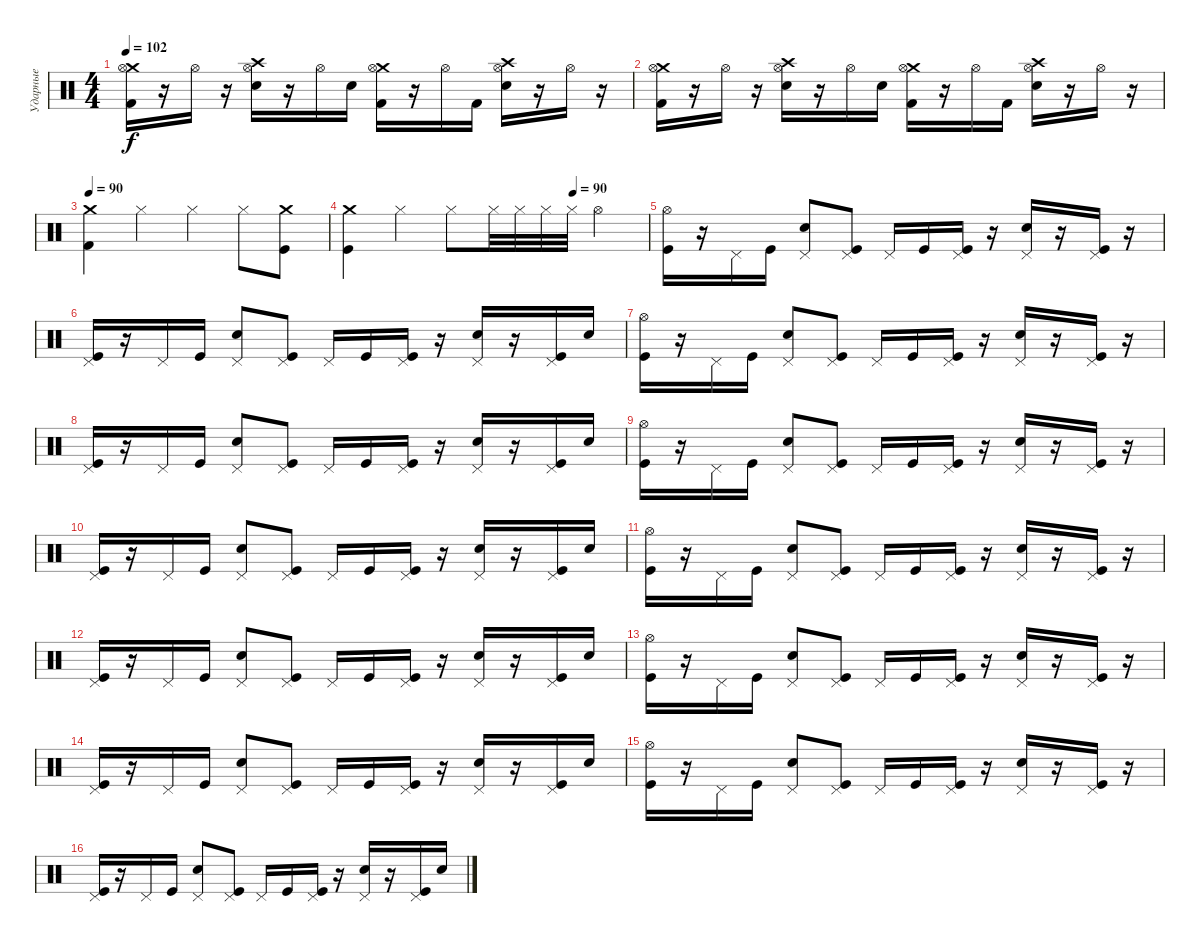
\track ("Ударные" "Ударные") {instrument percussion}
\staff {score}
\articulation defaults
\ts (4 4)
\tempo 102
\clef neutral
\ks c
("Crash medium (hit)" "Hi-Hat (open)" "Kick (hit) 2").16{dy f} r.16 "Hi-Hat (open)".16 r.16 ("Crash high (hit)" "Hi-Hat (open)" "Electric Snare (hit)").16 r.16 "Hi-Hat (open)".16 "Electric Snare (hit)".16 ("Crash medium (hit)" "Hi-Hat (open)" "Kick (hit) 2").16 r.16 "Hi-Hat (open)".16 "Kick (hit) 2".16 ("Crash high (hit)" "Hi-Hat (open)" "Electric Snare (hit)").16 r.16 "Hi-Hat (open)".16 r.16 |
("Crash medium (hit)" "Hi-Hat (open)" "Kick (hit) 2").16 r.16 "Hi-Hat (open)".16 r.16 ("Crash high (hit)" "Hi-Hat (open)" "Electric Snare (hit)").16 r.16 "Hi-Hat (open)".16 "Electric Snare (hit)".16 ("Crash medium (hit)" "Hi-Hat (open)" "Kick (hit) 2").16 r.16 "Hi-Hat (open)".16 "Kick (hit) 2".16 ("Crash high (hit)" "Hi-Hat (open)" "Electric Snare (hit)").16 r.16 "Hi-Hat (open)".16 r.16 |
\tempo 90
("Crash medium (hit)" "Kick (hit) 2").4 "Hi-Hat (closed)".4 "Hi-Hat (closed)".4 "Hi-Hat (closed)".8 ("Crash medium (hit)" "Kick (hit)").8 |
\tempo (90 0.75)
("Crash medium (hit)" "Kick (hit)").4 "Hi-Hat (closed)".4 "Hi-Hat (closed)".8 "Hi-Hat (closed)".32 "Hi-Hat (closed)".32 "Hi-Hat (closed)".32 "Hi-Hat (closed)".32 "Hi-Hat (open)".4 |
("Hi-Hat (open)" "Kick (hit)").16 r.16 "Pedal Hi-Hat (hit)".16 "Kick (hit)".16 ("Pedal Hi-Hat (hit)" "Electric Snare (hit)").8 ("Pedal Hi-Hat (hit)" "Kick (hit)").8 "Pedal Hi-Hat (hit)".16 "Kick (hit)".16 ("Pedal Hi-Hat (hit)" "Kick (hit)").16 r.16 ("Pedal Hi-Hat (hit)" "Electric Snare (hit)").16 r.16 ("Pedal Hi-Hat (hit)" "Kick (hit)").16 r.16 |
("Pedal Hi-Hat (hit)" "Kick (hit)").16 r.16 "Pedal Hi-Hat (hit)".16 "Kick (hit)".16 ("Pedal Hi-Hat (hit)" "Electric Snare (hit)").8 ("Pedal Hi-Hat (hit)" "Kick (hit)").8 "Pedal Hi-Hat (hit)".16 "Kick (hit)".16 ("Pedal Hi-Hat (hit)" "Kick (hit)").16 r.16 ("Pedal Hi-Hat (hit)" "Electric Snare (hit)").16 r.16 ("Pedal Hi-Hat (hit)" "Kick (hit)").16 "Electric Snare (hit)".16 |
("Hi-Hat (open)" "Kick (hit)").16 r.16 "Pedal Hi-Hat (hit)".16 "Kick (hit)".16 ("Pedal Hi-Hat (hit)" "Electric Snare (hit)").8 ("Pedal Hi-Hat (hit)" "Kick (hit)").8 "Pedal Hi-Hat (hit)".16 "Kick (hit)".16 ("Pedal Hi-Hat (hit)" "Kick (hit)").16 r.16 ("Pedal Hi-Hat (hit)" "Electric Snare (hit)").16 r.16 ("Pedal Hi-Hat (hit)" "Kick (hit)").16 r.16 |
("Pedal Hi-Hat (hit)" "Kick (hit)").16 r.16 "Pedal Hi-Hat (hit)".16 "Kick (hit)".16 ("Pedal Hi-Hat (hit)" "Electric Snare (hit)").8 ("Pedal Hi-Hat (hit)" "Kick (hit)").8 "Pedal Hi-Hat (hit)".16 "Kick (hit)".16 ("Pedal Hi-Hat (hit)" "Kick (hit)").16 r.16 ("Pedal Hi-Hat (hit)" "Electric Snare (hit)").16 r.16 ("Pedal Hi-Hat (hit)" "Kick (hit)").16 "Electric Snare (hit)".16 |
("Hi-Hat (open)" "Kick (hit)").16 r.16 "Pedal Hi-Hat (hit)".16 "Kick (hit)".16 ("Pedal Hi-Hat (hit)" "Electric Snare (hit)").8 ("Pedal Hi-Hat (hit)" "Kick (hit)").8 "Pedal Hi-Hat (hit)".16 "Kick (hit)".16 ("Pedal Hi-Hat (hit)" "Kick (hit)").16 r.16 ("Pedal Hi-Hat (hit)" "Electric Snare (hit)").16 r.16 ("Pedal Hi-Hat (hit)" "Kick (hit)").16 r.16 |
("Pedal Hi-Hat (hit)" "Kick (hit)").16 r.16 "Pedal Hi-Hat (hit)".16 "Kick (hit)".16 ("Pedal Hi-Hat (hit)" "Electric Snare (hit)").8 ("Pedal Hi-Hat (hit)" "Kick (hit)").8 "Pedal Hi-Hat (hit)".16 "Kick (hit)".16 ("Pedal Hi-Hat (hit)" "Kick (hit)").16 r.16 ("Pedal Hi-Hat (hit)" "Electric Snare (hit)").16 r.16 ("Pedal Hi-Hat (hit)" "Kick (hit)").16 "Electric Snare (hit)".16 |
("Hi-Hat (open)" "Kick (hit)").16 r.16 "Pedal Hi-Hat (hit)".16 "Kick (hit)".16 ("Pedal Hi-Hat (hit)" "Electric Snare (hit)").8 ("Pedal Hi-Hat (hit)" "Kick (hit)").8 "Pedal Hi-Hat (hit)".16 "Kick (hit)".16 ("Pedal Hi-Hat (hit)" "Kick (hit)").16 r.16 ("Pedal Hi-Hat (hit)" "Electric Snare (hit)").16 r.16 ("Pedal Hi-Hat (hit)" "Kick (hit)").16 r.16 |
("Pedal Hi-Hat (hit)" "Kick (hit)").16 r.16 "Pedal Hi-Hat (hit)".16 "Kick (hit)".16 ("Pedal Hi-Hat (hit)" "Electric Snare (hit)").8 ("Pedal Hi-Hat (hit)" "Kick (hit)").8 "Pedal Hi-Hat (hit)".16 "Kick (hit)".16 ("Pedal Hi-Hat (hit)" "Kick (hit)").16 r.16 ("Pedal Hi-Hat (hit)" "Electric Snare (hit)").16 r.16 ("Pedal Hi-Hat (hit)" "Kick (hit)").16 "Electric Snare (hit)".16 |
("Hi-Hat (open)" "Kick (hit)").16 r.16 "Pedal Hi-Hat (hit)".16 "Kick (hit)".16 ("Pedal Hi-Hat (hit)" "Electric Snare (hit)").8 ("Pedal Hi-Hat (hit)" "Kick (hit)").8 "Pedal Hi-Hat (hit)".16 "Kick (hit)".16 ("Pedal Hi-Hat (hit)" "Kick (hit)").16 r.16 ("Pedal Hi-Hat (hit)" "Electric Snare (hit)").16 r.16 ("Pedal Hi-Hat (hit)" "Kick (hit)").16 r.16 |
("Pedal Hi-Hat (hit)" "Kick (hit)").16 r.16 "Pedal Hi-Hat (hit)".16 "Kick (hit)".16 ("Pedal Hi-Hat (hit)" "Electric Snare (hit)").8 ("Pedal Hi-Hat (hit)" "Kick (hit)").8 "Pedal Hi-Hat (hit)".16 "Kick (hit)".16 ("Pedal Hi-Hat (hit)" "Kick (hit)").16 r.16 ("Pedal Hi-Hat (hit)" "Electric Snare (hit)").16 r.16 ("Pedal Hi-Hat (hit)" "Kick (hit)").16 "Electric Snare (hit)".16 |
("Hi-Hat (open)" "Kick (hit)").16 r.16 "Pedal Hi-Hat (hit)".16 "Kick (hit)".16 ("Pedal Hi-Hat (hit)" "Electric Snare (hit)").8 ("Pedal Hi-Hat (hit)" "Kick (hit)").8 "Pedal Hi-Hat (hit)".16 "Kick (hit)".16 ("Pedal Hi-Hat (hit)" "Kick (hit)").16 r.16 ("Pedal Hi-Hat (hit)" "Electric Snare (hit)").16 r.16 ("Pedal Hi-Hat (hit)" "Kick (hit)").16 r.16 |
("Pedal Hi-Hat (hit)" "Kick (hit)").16 r.16 "Pedal Hi-Hat (hit)".16 "Kick (hit)".16 ("Pedal Hi-Hat (hit)" "Electric Snare (hit)").8 ("Pedal Hi-Hat (hit)" "Kick (hit)").8 "Pedal Hi-Hat (hit)".16 "Kick (hit)".16 ("Pedal Hi-Hat (hit)" "Kick (hit)").16 r.16 ("Pedal Hi-Hat (hit)" "Electric Snare (hit)").16 r.16 ("Pedal Hi-Hat (hit)" "Kick (hit)").16 "Electric Snare (hit)".16
